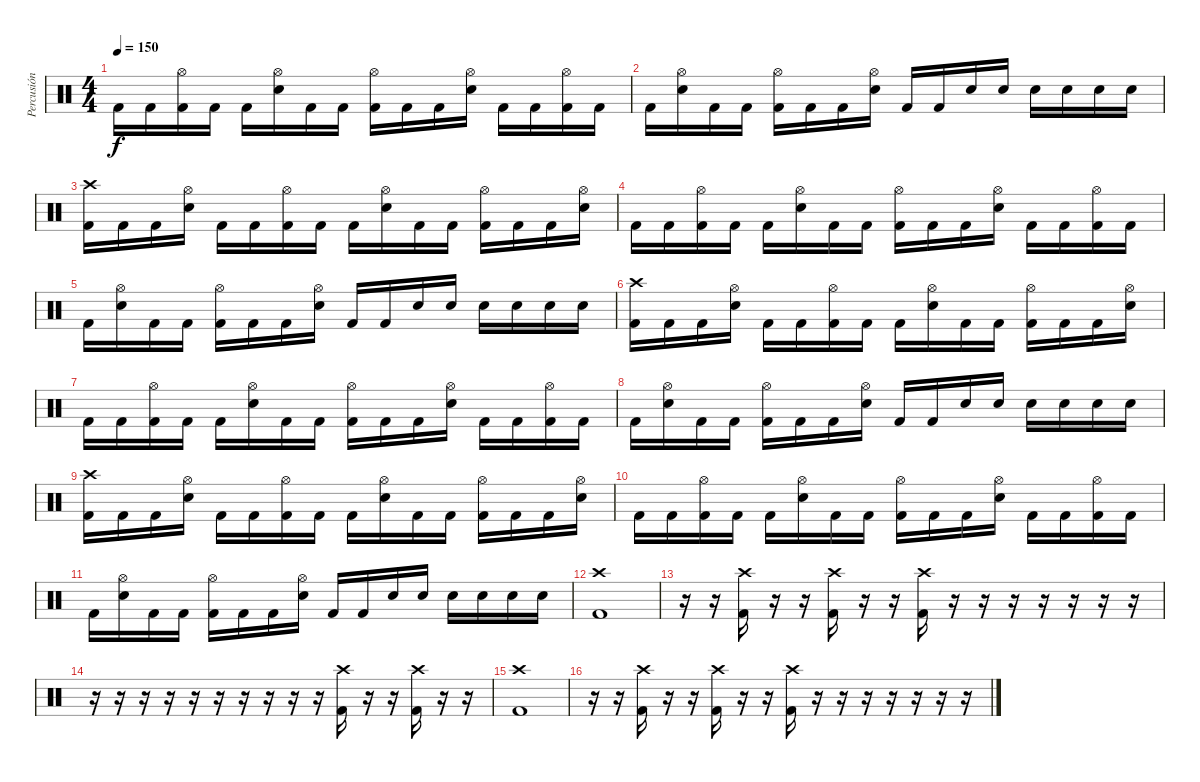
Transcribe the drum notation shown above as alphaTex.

\track ("Percusión" "Percusión") {instrument percussion}
\staff {score}
\articulation defaults
\ts (4 4)
\tempo 150
\clef neutral
\ks c "Kick (hit) 2".16{dy f} "Kick (hit) 2".16
("Hi-Hat (open)" "Kick (hit) 2").16 "Kick (hit) 2".16 "Kick (hit) 2".16 ("Hi-Hat (open)" "Electric Snare (hit)").16 "Kick (hit) 2".16 "Kick (hit) 2".16 ("Hi-Hat (open)" "Kick (hit) 2").16 "Kick (hit) 2".16 "Kick (hit) 2".16 ("Hi-Hat (open)" "Electric Snare (hit)").16 "Kick (hit) 2".16 "Kick (hit) 2".16 ("Hi-Hat (open)" "Kick (hit) 2").16 "Kick (hit) 2".16 |
"Kick (hit) 2".16 ("Hi-Hat (open)" "Electric Snare (hit)").16 "Kick (hit) 2".16 "Kick (hit) 2".16 ("Hi-Hat (open)" "Kick (hit) 2").16 "Kick (hit) 2".16 "Kick (hit) 2".16 ("Hi-Hat (open)" "Electric Snare (hit)").16 "Kick (hit) 2".16 "Kick (hit) 2".16 "Electric Snare (hit)".16 "Electric Snare (hit)".16 "Electric Snare (hit)".16 "Electric Snare (hit)".16 "Electric Snare (hit)".16 "Electric Snare (hit)".16 |
("Crash high (hit)" "Kick (hit) 2").16 "Kick (hit) 2".16 "Kick (hit) 2".16 ("Hi-Hat (open)" "Electric Snare (hit)").16 "Kick (hit) 2".16 "Kick (hit) 2".16 ("Hi-Hat (open)" "Kick (hit) 2").16 "Kick (hit) 2".16 "Kick (hit) 2".16 ("Hi-Hat (open)" "Electric Snare (hit)").16 "Kick (hit) 2".16 "Kick (hit) 2".16 ("Hi-Hat (open)" "Kick (hit) 2").16 "Kick (hit) 2".16 "Kick (hit) 2".16 ("Hi-Hat (open)" "Electric Snare (hit)").16 |
"Kick (hit) 2".16 "Kick (hit) 2".16 ("Hi-Hat (open)" "Kick (hit) 2").16 "Kick (hit) 2".16 "Kick (hit) 2".16 ("Hi-Hat (open)" "Electric Snare (hit)").16 "Kick (hit) 2".16 "Kick (hit) 2".16 ("Hi-Hat (open)" "Kick (hit) 2").16 "Kick (hit) 2".16 "Kick (hit) 2".16 ("Hi-Hat (open)" "Electric Snare (hit)").16 "Kick (hit) 2".16 "Kick (hit) 2".16 ("Hi-Hat (open)" "Kick (hit) 2").16 "Kick (hit) 2".16 |
"Kick (hit) 2".16 ("Hi-Hat (open)" "Electric Snare (hit)").16 "Kick (hit) 2".16 "Kick (hit) 2".16 ("Hi-Hat (open)" "Kick (hit) 2").16 "Kick (hit) 2".16 "Kick (hit) 2".16 ("Hi-Hat (open)" "Electric Snare (hit)").16 "Kick (hit) 2".16 "Kick (hit) 2".16 "Electric Snare (hit)".16 "Electric Snare (hit)".16 "Electric Snare (hit)".16 "Electric Snare (hit)".16 "Electric Snare (hit)".16 "Electric Snare (hit)".16 |
("Crash high (hit)" "Kick (hit) 2").16 "Kick (hit) 2".16 "Kick (hit) 2".16 ("Hi-Hat (open)" "Electric Snare (hit)").16 "Kick (hit) 2".16 "Kick (hit) 2".16 ("Hi-Hat (open)" "Kick (hit) 2").16 "Kick (hit) 2".16 "Kick (hit) 2".16 ("Hi-Hat (open)" "Electric Snare (hit)").16 "Kick (hit) 2".16 "Kick (hit) 2".16 ("Hi-Hat (open)" "Kick (hit) 2").16 "Kick (hit) 2".16 "Kick (hit) 2".16 ("Hi-Hat (open)" "Electric Snare (hit)").16 |
"Kick (hit) 2".16 "Kick (hit) 2".16 ("Hi-Hat (open)" "Kick (hit) 2").16 "Kick (hit) 2".16 "Kick (hit) 2".16 ("Hi-Hat (open)" "Electric Snare (hit)").16 "Kick (hit) 2".16 "Kick (hit) 2".16 ("Hi-Hat (open)" "Kick (hit) 2").16 "Kick (hit) 2".16 "Kick (hit) 2".16 ("Hi-Hat (open)" "Electric Snare (hit)").16 "Kick (hit) 2".16 "Kick (hit) 2".16 ("Hi-Hat (open)" "Kick (hit) 2").16 "Kick (hit) 2".16 |
"Kick (hit) 2".16 ("Hi-Hat (open)" "Electric Snare (hit)").16 "Kick (hit) 2".16 "Kick (hit) 2".16 ("Hi-Hat (open)" "Kick (hit) 2").16 "Kick (hit) 2".16 "Kick (hit) 2".16 ("Hi-Hat (open)" "Electric Snare (hit)").16 "Kick (hit) 2".16 "Kick (hit) 2".16 "Electric Snare (hit)".16 "Electric Snare (hit)".16 "Electric Snare (hit)".16 "Electric Snare (hit)".16 "Electric Snare (hit)".16 "Electric Snare (hit)".16 |
("Crash high (hit)" "Kick (hit) 2").16 "Kick (hit) 2".16 "Kick (hit) 2".16 ("Hi-Hat (open)" "Electric Snare (hit)").16 "Kick (hit) 2".16 "Kick (hit) 2".16 ("Hi-Hat (open)" "Kick (hit) 2").16 "Kick (hit) 2".16 "Kick (hit) 2".16 ("Hi-Hat (open)" "Electric Snare (hit)").16 "Kick (hit) 2".16 "Kick (hit) 2".16 ("Hi-Hat (open)" "Kick (hit) 2").16 "Kick (hit) 2".16 "Kick (hit) 2".16 ("Hi-Hat (open)" "Electric Snare (hit)").16 |
"Kick (hit) 2".16 "Kick (hit) 2".16 ("Hi-Hat (open)" "Kick (hit) 2").16 "Kick (hit) 2".16 "Kick (hit) 2".16 ("Hi-Hat (open)" "Electric Snare (hit)").16 "Kick (hit) 2".16 "Kick (hit) 2".16 ("Hi-Hat (open)" "Kick (hit) 2").16 "Kick (hit) 2".16 "Kick (hit) 2".16 ("Hi-Hat (open)" "Electric Snare (hit)").16 "Kick (hit) 2".16 "Kick (hit) 2".16 ("Hi-Hat (open)" "Kick (hit) 2").16 "Kick (hit) 2".16 |
"Kick (hit) 2".16 ("Hi-Hat (open)" "Electric Snare (hit)").16 "Kick (hit) 2".16 "Kick (hit) 2".16 ("Hi-Hat (open)" "Kick (hit) 2").16 "Kick (hit) 2".16 "Kick (hit) 2".16 ("Hi-Hat (open)" "Electric Snare (hit)").16 "Kick (hit) 2".16 "Kick (hit) 2".16 "Electric Snare (hit)".16 "Electric Snare (hit)".16 "Electric Snare (hit)".16 "Electric Snare (hit)".16 "Electric Snare (hit)".16 "Electric Snare (hit)".16 |
("Crash high (hit)" "Kick (hit) 2").1 |
r.16 r.16 ("Crash high (hit)" "Kick (hit) 2").16 r.16 r.16 ("Crash high (hit)" "Kick (hit) 2").16 r.16 r.16 ("Crash high (hit)" "Kick (hit) 2").16 r.16 r.16 r.16 r.16 r.16 r.16 r.16 |
r.16 r.16 r.16 r.16 r.16 r.16 r.16 r.16 r.16 r.16 ("Crash high (hit)" "Kick (hit) 2").16 r.16 r.16 ("Crash high (hit)" "Kick (hit) 2").16 r.16 r.16 |
("Crash high (hit)" "Kick (hit) 2").1 |
r.16 r.16 ("Crash high (hit)" "Kick (hit) 2").16 r.16 r.16 ("Crash high (hit)" "Kick (hit) 2").16 r.16 r.16 ("Crash high (hit)" "Kick (hit) 2").16 r.16 r.16 r.16 r.16 r.16 r.16 r.16
